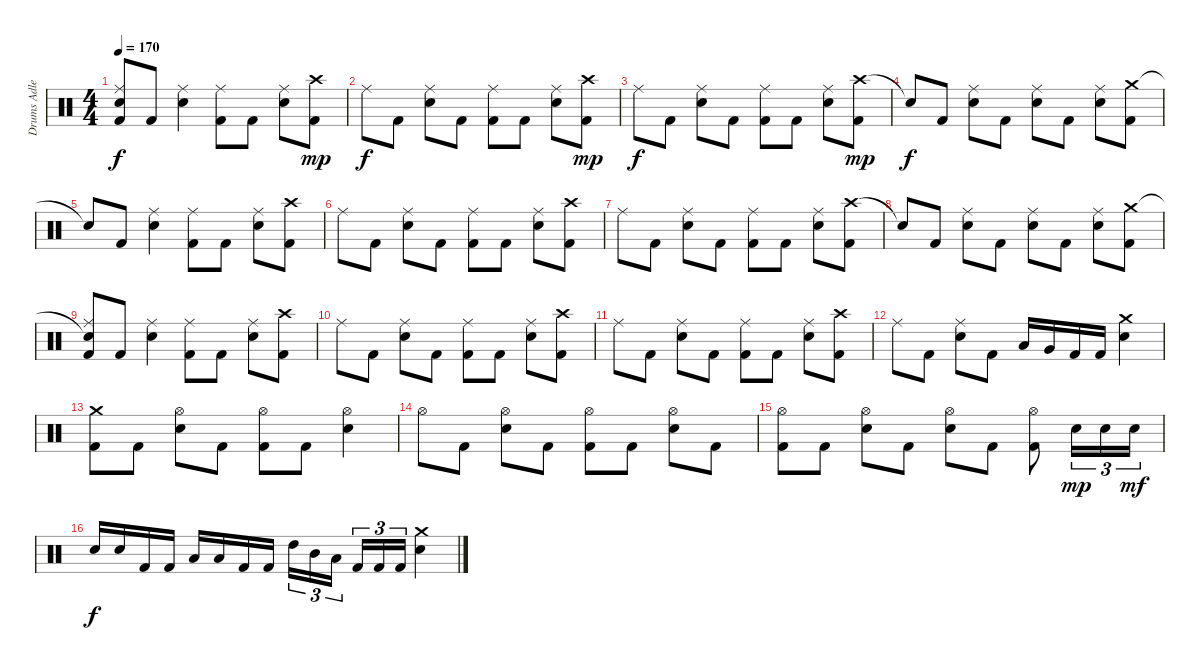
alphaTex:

\track ("Drums Adler" "Drums Adle") {instrument percussion}
\staff {score}
\articulation defaults
\ts (4 4)
\tempo 170
\clef neutral
\ks c
("Snare (hit)"{t} "Ride (middle)" "Kick (hit) 2").8{dy f} "Kick (hit) 2".8 ("Ride (middle)" "Snare (hit) 2").4 ("Ride (middle)" "Kick (hit) 2").8 "Kick (hit) 2".8 ("Ride (middle)" "Snare (hit) 2").8 ("Crash high (hit)" "Kick (hit) 2").8{dy mp} |
"Ride (middle)".8{dy f} "Kick (hit) 2".8 ("Ride (middle)" "Snare (hit) 2").8 "Kick (hit) 2".8 ("Ride (middle)" "Kick (hit) 2").8 "Kick (hit) 2".8 ("Ride (middle)" "Snare (hit) 2").8 ("Crash high (hit)" "Kick (hit) 2").8{dy mp} |
"Ride (middle)".8{dy f} "Kick (hit) 2".8 ("Ride (middle)" "Snare (hit) 2").8 "Kick (hit) 2".8 ("Ride (middle)" "Kick (hit) 2").8 "Kick (hit) 2".8 ("Ride (middle)" "Snare (hit) 2").8 ("Crash high (hit)" "Kick (hit) 2").8{dy mp} |
"Snare (hit)"{t}.8{dy f} "Kick (hit) 2".8 ("Ride (middle)" "Snare (hit) 2").8 "Kick (hit) 2".8 ("Ride (middle)" "Snare (hit) 2").8 "Kick (hit) 2".8 ("Ride (middle)" "Snare (hit) 2").8 ("Crash medium (hit)" "Kick (hit) 2").8 |
"Snare (hit)"{t}.8 "Kick (hit) 2".8 ("Ride (middle)" "Snare (hit) 2").4 ("Ride (middle)" "Kick (hit) 2").8 "Kick (hit) 2".8 ("Ride (middle)" "Snare (hit) 2").8 ("Crash high (hit)" "Kick (hit) 2").8 |
"Ride (middle)".8 "Kick (hit) 2".8 ("Ride (middle)" "Snare (hit) 2").8 "Kick (hit) 2".8 ("Ride (middle)" "Kick (hit) 2").8 "Kick (hit) 2".8 ("Ride (middle)" "Snare (hit) 2").8 ("Crash high (hit)" "Kick (hit) 2").8 |
"Ride (middle)".8 "Kick (hit) 2".8 ("Ride (middle)" "Snare (hit) 2").8 "Kick (hit) 2".8 ("Ride (middle)" "Kick (hit) 2").8 "Kick (hit) 2".8 ("Ride (middle)" "Snare (hit) 2").8 ("Crash high (hit)" "Kick (hit) 2").8 |
"Snare (hit)"{t}.8 "Kick (hit) 2".8 ("Ride (middle)" "Snare (hit) 2").8 "Kick (hit) 2".8 ("Ride (middle)" "Snare (hit) 2").8 "Kick (hit) 2".8 ("Ride (middle)" "Snare (hit) 2").8 ("Crash medium (hit)" "Kick (hit) 2").8 |
("Snare (hit)"{t} "Ride (middle)" "Kick (hit) 2").8 "Kick (hit) 2".8 ("Ride (middle)" "Snare (hit) 2").4 ("Ride (middle)" "Kick (hit) 2").8 "Kick (hit) 2".8 ("Ride (middle)" "Snare (hit) 2").8 ("Crash high (hit)" "Kick (hit) 2").8 |
"Ride (middle)".8 "Kick (hit) 2".8 ("Ride (middle)" "Snare (hit) 2").8 "Kick (hit) 2".8 ("Ride (middle)" "Kick (hit) 2").8 "Kick (hit) 2".8 ("Ride (middle)" "Snare (hit) 2").8 ("Crash high (hit)" "Kick (hit) 2").8 |
"Ride (middle)".8 "Kick (hit) 2".8 ("Ride (middle)" "Snare (hit) 2").8 "Kick (hit) 2".8 ("Ride (middle)" "Kick (hit) 2").8 "Kick (hit) 2".8 ("Ride (middle)" "Snare (hit) 2").8 ("Crash high (hit)" "Kick (hit) 2").8 |
"Ride (middle)".8 "Kick (hit) 2".8 ("Ride (middle)" "Snare (hit) 2").8 "Kick (hit) 2".8 "Low Tom (hit)".16 "Very Low Tom (hit)".16 "Kick (hit) 2".16 "Kick (hit) 2".16 ("Crash medium (hit)" "Snare (hit) 2").4 |
("Crash medium (hit)" "Kick (hit) 2").8 "Kick (hit) 2".8 ("Hi-Hat (open)" "Snare (hit) 2").8 "Kick (hit) 2".8 ("Hi-Hat (open)" "Kick (hit) 2").8 "Kick (hit) 2".8 ("Hi-Hat (open)" "Snare (hit) 2").4 |
"Hi-Hat (open)".8 "Kick (hit) 2".8 ("Hi-Hat (open)" "Snare (hit) 2").8 "Kick (hit) 2".8 ("Hi-Hat (open)" "Kick (hit) 2").8 "Kick (hit) 2".8 ("Hi-Hat (open)" "Snare (hit) 2").8 "Kick (hit) 2".8 |
("Hi-Hat (open)" "Kick (hit) 2").8 "Kick (hit) 2".8 ("Hi-Hat (open)" "Snare (hit) 2").8 "Kick (hit) 2".8 ("Hi-Hat (open)" "Snare (hit) 2").8 "Kick (hit) 2".8 ("Hi-Hat (open)" "Kick (hit) 2").8 "Snare (hit) 2".16{tu (3 2) dy mp} "Snare (hit) 2".16{tu (3 2)} "Snare (hit) 2".16{tu (3 2) dy mf} |
"Snare (hit) 2".16{dy f} "Snare (hit) 2".16 "Kick (hit) 2".16 "Kick (hit) 2".16 "Low Tom (hit)".16 "Low Tom (hit)".16 "Kick (hit) 2".16 "Kick (hit) 2".16 "High Tom (hit)".16{tu (3 2)} "Mid Tom (hit)".16{tu (3 2)} "Low Tom (hit)".16{tu (3 2) beam splitsecondary} "Kick (hit) 2".16{tu (3 2)} "Kick (hit) 2".16{tu (3 2)} "Kick (hit) 2".16{tu (3 2)} ("Crash medium (hit)" "Snare (hit) 2").4
